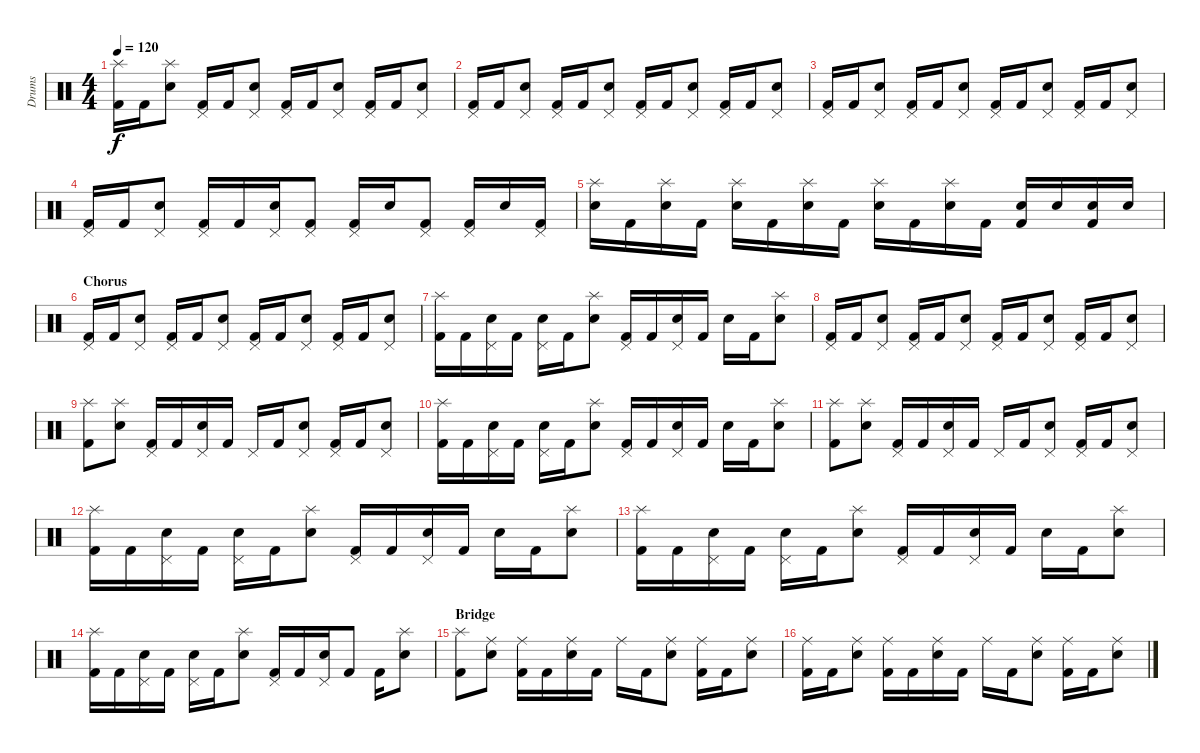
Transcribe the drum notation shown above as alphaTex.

\track ("Drums" "Drums") {instrument percussion}
\staff {score}
\articulation defaults
\ts (4 4)
\tempo 120
\clef neutral
\ks c
("Splash (hit)" "Kick (hit) 2").16{dy f} "Kick (hit) 2".16 ("Splash (hit)" "Electric Snare (hit)").8 ("Pedal Hi-Hat (hit)" "Kick (hit) 2").16 "Kick (hit) 2".16 ("Pedal Hi-Hat (hit)" "Electric Snare (hit)").8 ("Pedal Hi-Hat (hit)" "Kick (hit) 2").16 "Kick (hit) 2".16 ("Pedal Hi-Hat (hit)" "Electric Snare (hit)").8 ("Pedal Hi-Hat (hit)" "Kick (hit) 2").16 "Kick (hit) 2".16 ("Pedal Hi-Hat (hit)" "Electric Snare (hit)").8 |
("Pedal Hi-Hat (hit)" "Kick (hit) 2").16 "Kick (hit) 2".16 ("Pedal Hi-Hat (hit)" "Electric Snare (hit)").8 ("Pedal Hi-Hat (hit)" "Kick (hit) 2").16 "Kick (hit) 2".16 ("Pedal Hi-Hat (hit)" "Electric Snare (hit)").8 ("Pedal Hi-Hat (hit)" "Kick (hit) 2").16 "Kick (hit) 2".16 ("Pedal Hi-Hat (hit)" "Electric Snare (hit)").8 ("Pedal Hi-Hat (hit)" "Kick (hit) 2").16 "Kick (hit) 2".16 ("Pedal Hi-Hat (hit)" "Electric Snare (hit)").8 |
("Pedal Hi-Hat (hit)" "Kick (hit) 2").16 "Kick (hit) 2".16 ("Pedal Hi-Hat (hit)" "Electric Snare (hit)").8 ("Pedal Hi-Hat (hit)" "Kick (hit) 2").16 "Kick (hit) 2".16 ("Pedal Hi-Hat (hit)" "Electric Snare (hit)").8 ("Pedal Hi-Hat (hit)" "Kick (hit) 2").16 "Kick (hit) 2".16 ("Pedal Hi-Hat (hit)" "Electric Snare (hit)").8 ("Pedal Hi-Hat (hit)" "Kick (hit) 2").16 "Kick (hit) 2".16 ("Pedal Hi-Hat (hit)" "Electric Snare (hit)").8 |
("Pedal Hi-Hat (hit)" "Kick (hit) 2").16 "Kick (hit) 2".16 ("Pedal Hi-Hat (hit)" "Electric Snare (hit)").8 ("Pedal Hi-Hat (hit)" "Kick (hit) 2").16 "Kick (hit) 2".16 ("Pedal Hi-Hat (hit)" "Electric Snare (hit)").16 ("Pedal Hi-Hat (hit)" "Kick (hit) 2").8 ("Pedal Hi-Hat (hit)" "Kick (hit) 2").16 "Electric Snare (hit)".16 ("Pedal Hi-Hat (hit)" "Kick (hit) 2").8 ("Pedal Hi-Hat (hit)" "Kick (hit) 2").16 "Electric Snare (hit)".16 ("Pedal Hi-Hat (hit)" "Kick (hit) 2").16 |
("Splash (hit)" "Electric Snare (hit)").16 "Kick (hit) 2".16 ("Splash (hit)" "Electric Snare (hit)").16 "Kick (hit) 2".16 ("Splash (hit)" "Electric Snare (hit)").16 "Kick (hit) 2".16 ("Splash (hit)" "Electric Snare (hit)").16 "Kick (hit) 2".16 ("Splash (hit)" "Electric Snare (hit)").16 "Kick (hit) 2".16 ("Splash (hit)" "Electric Snare (hit)").16 "Kick (hit) 2".16 ("Electric Snare (hit)" "Kick (hit) 2").16 "Electric Snare (hit)".16 ("Electric Snare (hit)" "Kick (hit) 2").16 "Electric Snare (hit)".16 |
\section ("" "Chorus")
("Pedal Hi-Hat (hit)" "Kick (hit) 2").16 "Kick (hit) 2".16 ("Pedal Hi-Hat (hit)" "Electric Snare (hit)").8 ("Pedal Hi-Hat (hit)" "Kick (hit) 2").16 "Kick (hit) 2".16 ("Pedal Hi-Hat (hit)" "Electric Snare (hit)").8 ("Pedal Hi-Hat (hit)" "Kick (hit) 2").16 "Kick (hit) 2".16 ("Pedal Hi-Hat (hit)" "Electric Snare (hit)").8 ("Pedal Hi-Hat (hit)" "Kick (hit) 2").16 "Kick (hit) 2".16 ("Pedal Hi-Hat (hit)" "Electric Snare (hit)").8 |
("Splash (hit)" "Kick (hit) 2").16 "Kick (hit) 2".16 ("Pedal Hi-Hat (hit)" "Electric Snare (hit)").16 "Kick (hit) 2".16 ("Pedal Hi-Hat (hit)" "Electric Snare (hit)").16 "Kick (hit) 2".16 ("Splash (hit)" "Electric Snare (hit)").8 ("Pedal Hi-Hat (hit)" "Kick (hit) 2").16 "Kick (hit) 2".16 ("Pedal Hi-Hat (hit)" "Electric Snare (hit)").16 "Kick (hit) 2".16 "Electric Snare (hit)".16 "Kick (hit) 2".16 ("Splash (hit)" "Electric Snare (hit)").8 |
("Pedal Hi-Hat (hit)" "Kick (hit) 2").16 "Kick (hit) 2".16 ("Pedal Hi-Hat (hit)" "Electric Snare (hit)").8 ("Pedal Hi-Hat (hit)" "Kick (hit) 2").16 "Kick (hit) 2".16 ("Pedal Hi-Hat (hit)" "Electric Snare (hit)").8 ("Pedal Hi-Hat (hit)" "Kick (hit) 2").16 "Kick (hit) 2".16 ("Pedal Hi-Hat (hit)" "Electric Snare (hit)").8 ("Pedal Hi-Hat (hit)" "Kick (hit) 2").16 "Kick (hit) 2".16 ("Pedal Hi-Hat (hit)" "Electric Snare (hit)").8 |
("Splash (hit)" "Kick (hit) 2").8 ("Splash (hit)" "Electric Snare (hit)").8 ("Pedal Hi-Hat (hit)" "Kick (hit) 2").16 "Kick (hit) 2".16 ("Pedal Hi-Hat (hit)" "Electric Snare (hit)").16 "Kick (hit) 2".16 "Pedal Hi-Hat (hit)".16 "Kick (hit) 2".16 ("Pedal Hi-Hat (hit)" "Electric Snare (hit)").8 ("Pedal Hi-Hat (hit)" "Kick (hit) 2").16 "Kick (hit) 2".16 ("Pedal Hi-Hat (hit)" "Electric Snare (hit)").8 |
("Splash (hit)" "Kick (hit) 2").16 "Kick (hit) 2".16 ("Pedal Hi-Hat (hit)" "Electric Snare (hit)").16 "Kick (hit) 2".16 ("Pedal Hi-Hat (hit)" "Electric Snare (hit)").16 "Kick (hit) 2".16 ("Splash (hit)" "Electric Snare (hit)").8 ("Pedal Hi-Hat (hit)" "Kick (hit) 2").16 "Kick (hit) 2".16 ("Pedal Hi-Hat (hit)" "Electric Snare (hit)").16 "Kick (hit) 2".16 "Electric Snare (hit)".16 "Kick (hit) 2".16 ("Splash (hit)" "Electric Snare (hit)").8 |
("Splash (hit)" "Kick (hit) 2").8 ("Splash (hit)" "Electric Snare (hit)").8 ("Pedal Hi-Hat (hit)" "Kick (hit) 2").16 "Kick (hit) 2".16 ("Pedal Hi-Hat (hit)" "Electric Snare (hit)").16 "Kick (hit) 2".16 "Pedal Hi-Hat (hit)".16 "Kick (hit) 2".16 ("Pedal Hi-Hat (hit)" "Electric Snare (hit)").8 ("Pedal Hi-Hat (hit)" "Kick (hit) 2").16 "Kick (hit) 2".16 ("Pedal Hi-Hat (hit)" "Electric Snare (hit)").8 |
("Splash (hit)" "Kick (hit) 2").16 "Kick (hit) 2".16 ("Pedal Hi-Hat (hit)" "Electric Snare (hit)").16 "Kick (hit) 2".16 ("Pedal Hi-Hat (hit)" "Electric Snare (hit)").16 "Kick (hit) 2".16 ("Splash (hit)" "Electric Snare (hit)").8 ("Pedal Hi-Hat (hit)" "Kick (hit) 2").16 "Kick (hit) 2".16 ("Pedal Hi-Hat (hit)" "Electric Snare (hit)").16 "Kick (hit) 2".16 "Electric Snare (hit)".16 "Kick (hit) 2".16 ("Splash (hit)" "Electric Snare (hit)").8 |
("Splash (hit)" "Kick (hit) 2").16 "Kick (hit) 2".16 ("Pedal Hi-Hat (hit)" "Electric Snare (hit)").16 "Kick (hit) 2".16 ("Pedal Hi-Hat (hit)" "Electric Snare (hit)").16 "Kick (hit) 2".16 ("Splash (hit)" "Electric Snare (hit)").8 ("Pedal Hi-Hat (hit)" "Kick (hit) 2").16 "Kick (hit) 2".16 ("Pedal Hi-Hat (hit)" "Electric Snare (hit)").16 "Kick (hit) 2".16 "Electric Snare (hit)".16 "Kick (hit) 2".16 ("Splash (hit)" "Electric Snare (hit)").8 |
("Splash (hit)" "Kick (hit) 2").16 "Kick (hit) 2".16 ("Pedal Hi-Hat (hit)" "Electric Snare (hit)").16 "Kick (hit) 2".16 ("Pedal Hi-Hat (hit)" "Electric Snare (hit)").16 "Kick (hit) 2".16 ("Splash (hit)" "Electric Snare (hit)").8 ("Pedal Hi-Hat (hit)" "Kick (hit) 2").16 "Kick (hit) 2".16 ("Pedal Hi-Hat (hit)" "Electric Snare (hit)").16 "Kick (hit) 2".8 "Kick (hit) 2".16 ("Splash (hit)" "Electric Snare (hit)").8 |
\section ("" "Bridge")
("Splash (hit)" "Kick (hit) 2").8 ("Ride (middle)" "Electric Snare (hit)").8 ("Ride (middle)" "Kick (hit) 2").16 "Kick (hit) 2".16 ("Ride (middle)" "Electric Snare (hit)").16 "Kick (hit) 2".16 "Ride (middle)".16 "Kick (hit) 2".16 ("Ride (middle)" "Electric Snare (hit)").8 ("Ride (middle)" "Kick (hit) 2").16 "Kick (hit) 2".16 ("Ride (middle)" "Electric Snare (hit)").8 |
("Ride (middle)" "Kick (hit) 2").16 "Kick (hit) 2".16 ("Ride (middle)" "Electric Snare (hit)").8 ("Ride (middle)" "Kick (hit) 2").16 "Kick (hit) 2".16 ("Ride (middle)" "Electric Snare (hit)").16 "Kick (hit) 2".16 "Ride (middle)".16 "Kick (hit) 2".16 ("Ride (middle)" "Electric Snare (hit)").8 ("Ride (middle)" "Kick (hit) 2").16 "Kick (hit) 2".16 ("Ride (middle)" "Electric Snare (hit)").8
